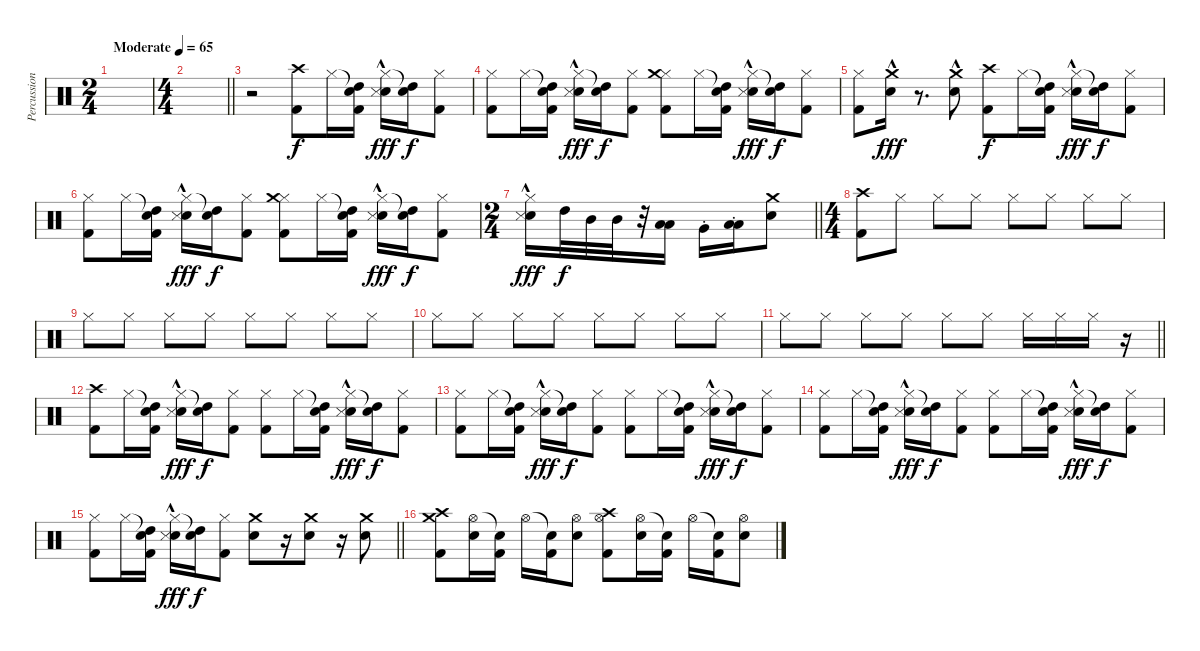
\track ("Percussion 1" "Percussion") {instrument percussion}
\staff {score}
\articulation defaults
\ts (2 4)
\tempo (65 "Moderate")
\clef neutral
\ks c
|
\ts (4 4)
\barLineRight lightlight
|
r.2 ("Crash high (hit)" "Kick (hit) 2").8 "Hi-Hat (closed)".16 ("Snare (hit)"{t} "High Tom (hit)" "Kick (hit) 2").16 ("Hi-Hat (closed)" "Electric Snare (hit)" "Metronome (hit)"{hac}).16{dy fff} ("Snare (hit)"{t} "High Tom (hit)").16{dy f} ("Hi-Hat (closed)" "Kick (hit) 2").8 |
("Hi-Hat (closed)" "Kick (hit) 2").8 "Hi-Hat (closed)".16 ("Snare (hit)"{t} "High Tom (hit)" "Kick (hit) 2").16 ("Hi-Hat (closed)" "Electric Snare (hit)" "Metronome (hit)"{hac}).16{dy fff} ("Snare (hit)"{t} "High Tom (hit)").16{dy f} ("Hi-Hat (closed)" "Kick (hit) 2").8 ("Hi-Hat (closed)" "Crash medium (hit)" "Kick (hit) 2").8 "Hi-Hat (closed)".16 ("Snare (hit)"{t} "High Tom (hit)" "Kick (hit) 2").16 ("Hi-Hat (closed)" "Electric Snare (hit)" "Metronome (hit)"{hac}).16{dy fff} ("Snare (hit)"{t} "High Tom (hit)").16{dy f} ("Hi-Hat (closed)" "Kick (hit) 2").8 |
("Hi-Hat (closed)" "Kick (hit) 2").8 ("Electric Snare (hit)"{hac} "Crash medium (hit)"{hac}).16{dy fff} r.8{d} ("Electric Snare (hit)"{hac} "Crash medium (hit)"{hac}).8 ("Crash high (hit)" "Kick (hit) 2").8{dy f} "Hi-Hat (closed)".16 ("Snare (hit)"{t} "High Tom (hit)" "Kick (hit) 2").16 ("Hi-Hat (closed)" "Electric Snare (hit)" "Metronome (hit)"{hac}).16{dy fff} ("Snare (hit)"{t} "High Tom (hit)").16{dy f} ("Hi-Hat (closed)" "Kick (hit) 2").8 |
("Hi-Hat (closed)" "Kick (hit) 2").8 "Hi-Hat (closed)".16 ("Snare (hit)"{t} "High Tom (hit)" "Kick (hit) 2").16 ("Hi-Hat (closed)" "Electric Snare (hit)" "Metronome (hit)"{hac}).16{dy fff} ("Snare (hit)"{t} "High Tom (hit)").16{dy f} ("Hi-Hat (closed)" "Kick (hit) 2").8 ("Hi-Hat (closed)" "Crash medium (hit)" "Kick (hit) 2").8 "Hi-Hat (closed)".16 ("Snare (hit)"{t} "High Tom (hit)" "Kick (hit) 2").16 ("Hi-Hat (closed)" "Electric Snare (hit)" "Metronome (hit)"{hac}).16{dy fff} ("Snare (hit)"{t} "High Tom (hit)").16{dy f} ("Hi-Hat (closed)" "Kick (hit) 2").8 |
\ts (2 4)
\barLineRight lightlight
("Hi-Hat (closed)" "Electric Snare (hit)" "Metronome (hit)"{hac}).16{dy fff} "High Tom (hit)".32{dy f} "Mid Tom (hit)".32 "Mid Tom (hit)".32 r.32 ("Low Tom (hit)" "Low Floor Tom (hit)").16 "Very Low Tom (hit)"{st}.16 ("Low Tom (hit)" "Low Floor Tom (hit)"{st}).16 ("Crash medium (hit)" "Electric Snare (hit)").8 |
\ts (4 4)
("Crash high (hit)" "Kick (hit) 2").8 "Hi-Hat (closed)".8 "Hi-Hat (closed)".8 "Hi-Hat (closed)".8 "Hi-Hat (closed)".8 "Hi-Hat (closed)".8 "Hi-Hat (closed)".8 "Hi-Hat (closed)".8 |
"Hi-Hat (closed)".8 "Hi-Hat (closed)".8 "Hi-Hat (closed)".8 "Hi-Hat (closed)".8 "Hi-Hat (closed)".8 "Hi-Hat (closed)".8 "Hi-Hat (closed)".8 "Hi-Hat (closed)".8 |
"Hi-Hat (closed)".8 "Hi-Hat (closed)".8 "Hi-Hat (closed)".8 "Hi-Hat (closed)".8 "Hi-Hat (closed)".8 "Hi-Hat (closed)".8 "Hi-Hat (closed)".8 "Hi-Hat (closed)".8 |
\barLineRight lightlight "Hi-Hat (closed)".8 "Hi-Hat (closed)".8 "Hi-Hat (closed)".8 "Hi-Hat (closed)".8 "Hi-Hat (closed)".8 "Hi-Hat (closed)".8 "Hi-Hat (closed)".16 "Hi-Hat (closed)".16 "Hi-Hat (closed)".16
r.16 |
("Crash high (hit)" "Kick (hit) 2").8 "Hi-Hat (closed)".16 ("Snare (hit)"{t} "High Tom (hit)" "Kick (hit) 2").16 ("Hi-Hat (closed)" "Electric Snare (hit)" "Metronome (hit)"{hac}).16{dy fff} ("Snare (hit)"{t} "High Tom (hit)").16{dy f} ("Hi-Hat (closed)" "Kick (hit) 2").8 ("Hi-Hat (closed)" "Kick (hit) 2").8 "Hi-Hat (closed)".16 ("Snare (hit)"{t} "High Tom (hit)" "Kick (hit) 2").16 ("Hi-Hat (closed)" "Electric Snare (hit)" "Metronome (hit)"{hac}).16{dy fff} ("Snare (hit)"{t} "High Tom (hit)").16{dy f} ("Hi-Hat (closed)" "Kick (hit) 2").8 |
("Hi-Hat (closed)" "Kick (hit) 2").8 "Hi-Hat (closed)".16 ("Snare (hit)"{t} "High Tom (hit)" "Kick (hit) 2").16 ("Hi-Hat (closed)" "Electric Snare (hit)" "Metronome (hit)"{hac}).16{dy fff} ("Snare (hit)"{t} "High Tom (hit)").16{dy f} ("Hi-Hat (closed)" "Kick (hit) 2").8 ("Hi-Hat (closed)" "Kick (hit) 2").8 "Hi-Hat (closed)".16 ("Snare (hit)"{t} "High Tom (hit)" "Kick (hit) 2").16 ("Hi-Hat (closed)" "Electric Snare (hit)" "Metronome (hit)"{hac}).16{dy fff} ("Snare (hit)"{t} "High Tom (hit)").16{dy f} ("Hi-Hat (closed)" "Kick (hit) 2").8 |
("Hi-Hat (closed)" "Kick (hit) 2").8 "Hi-Hat (closed)".16 ("Snare (hit)"{t} "High Tom (hit)" "Kick (hit) 2").16 ("Hi-Hat (closed)" "Electric Snare (hit)" "Metronome (hit)"{hac}).16{dy fff} ("Snare (hit)"{t} "High Tom (hit)").16{dy f} ("Hi-Hat (closed)" "Kick (hit) 2").8 ("Hi-Hat (closed)" "Kick (hit) 2").8 "Hi-Hat (closed)".16 ("Snare (hit)"{t} "High Tom (hit)" "Kick (hit) 2").16 ("Hi-Hat (closed)" "Electric Snare (hit)" "Metronome (hit)"{hac}).16{dy fff} ("Snare (hit)"{t} "High Tom (hit)").16{dy f} ("Hi-Hat (closed)" "Kick (hit) 2").8 |
\barLineRight lightlight
("Hi-Hat (closed)" "Kick (hit) 2").8 "Hi-Hat (closed)".16 ("Snare (hit)"{t} "High Tom (hit)" "Kick (hit) 2").16 ("Hi-Hat (closed)" "Electric Snare (hit)" "Metronome (hit)"{hac}).16{dy fff} ("Snare (hit)"{t} "High Tom (hit)").16{dy f} ("Hi-Hat (closed)" "Kick (hit) 2").8 ("Electric Snare (hit)" "Crash medium (hit)").8 r.16 ("Electric Snare (hit)" "Crash medium (hit)").8 r.16 ("Electric Snare (hit)" "Crash medium (hit)").8 |
("Crash high (hit)" "Crash medium (hit)" "Kick (hit) 2").8 ("Hi-Hat (open)" "Electric Snare (hit)").16 ("Snare (hit)"{t} "Kick (hit) 2").16 "Hi-Hat (open)".16 ("Snare (hit)"{t} "Kick (hit) 2").16 ("Hi-Hat (open)" "Electric Snare (hit)").8 ("Hi-Hat (open)" "Crash high (hit)" "Kick (hit) 2").8 ("Hi-Hat (open)" "Electric Snare (hit)").16 ("Snare (hit)"{t} "Kick (hit) 2").16 "Hi-Hat (open)".16 ("Snare (hit)"{t} "Kick (hit) 2").16 ("Hi-Hat (open)" "Electric Snare (hit)").8
